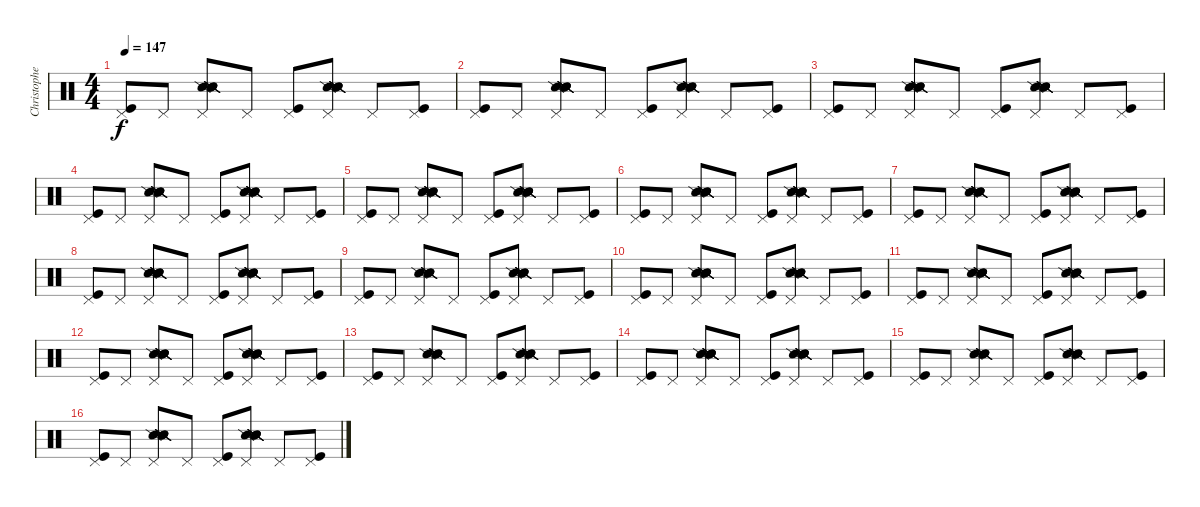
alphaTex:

\track ("Christopher Schneider  (Drums)" "Christophe") {instrument percussion}
\staff {score}
\articulation defaults
\ts (4 4)
\tempo 147
\clef neutral
\ks c
("Pedal Hi-Hat (hit)" "Kick (hit)").8{dy f} "Pedal Hi-Hat (hit)".8 ("Pedal Hi-Hat (hit)" "Snare (side stick) 2" "Snare (side stick) 2" "Snare (side stick) 2" "Snare (side stick) 2" "Snare (side stick) 2").8 "Pedal Hi-Hat (hit)".8 ("Pedal Hi-Hat (hit)" "Kick (hit)").8 ("Pedal Hi-Hat (hit)" "Snare (side stick) 2" "Snare (side stick) 2" "Snare (side stick) 2" "Snare (side stick) 2" "Snare (side stick) 2").8 "Pedal Hi-Hat (hit)".8 ("Pedal Hi-Hat (hit)" "Kick (hit)").8 |
("Pedal Hi-Hat (hit)" "Kick (hit)").8 "Pedal Hi-Hat (hit)".8 ("Pedal Hi-Hat (hit)" "Snare (side stick) 2" "Snare (side stick) 2" "Snare (side stick) 2" "Snare (side stick) 2" "Snare (side stick) 2").8 "Pedal Hi-Hat (hit)".8 ("Pedal Hi-Hat (hit)" "Kick (hit)").8 ("Pedal Hi-Hat (hit)" "Snare (side stick) 2" "Snare (side stick) 2" "Snare (side stick) 2" "Snare (side stick) 2" "Snare (side stick) 2").8 "Pedal Hi-Hat (hit)".8 ("Pedal Hi-Hat (hit)" "Kick (hit)").8 |
("Pedal Hi-Hat (hit)" "Kick (hit)").8 "Pedal Hi-Hat (hit)".8 ("Pedal Hi-Hat (hit)" "Snare (side stick) 2" "Snare (side stick) 2" "Snare (side stick) 2" "Snare (side stick) 2" "Snare (side stick) 2").8 "Pedal Hi-Hat (hit)".8 ("Pedal Hi-Hat (hit)" "Kick (hit)").8 ("Pedal Hi-Hat (hit)" "Snare (side stick) 2" "Snare (side stick) 2" "Snare (side stick) 2" "Snare (side stick) 2" "Snare (side stick) 2").8 "Pedal Hi-Hat (hit)".8 ("Pedal Hi-Hat (hit)" "Kick (hit)").8 |
("Pedal Hi-Hat (hit)" "Kick (hit)").8 "Pedal Hi-Hat (hit)".8 ("Pedal Hi-Hat (hit)" "Snare (side stick) 2" "Snare (side stick) 2" "Snare (side stick) 2" "Snare (side stick) 2" "Snare (side stick) 2").8 "Pedal Hi-Hat (hit)".8 ("Pedal Hi-Hat (hit)" "Kick (hit)").8 ("Pedal Hi-Hat (hit)" "Snare (side stick) 2" "Snare (side stick) 2" "Snare (side stick) 2" "Snare (side stick) 2" "Snare (side stick) 2").8 "Pedal Hi-Hat (hit)".8 ("Pedal Hi-Hat (hit)" "Kick (hit)").8 |
("Pedal Hi-Hat (hit)" "Kick (hit)").8 "Pedal Hi-Hat (hit)".8 ("Pedal Hi-Hat (hit)" "Snare (side stick) 2" "Snare (side stick) 2" "Snare (side stick) 2" "Snare (side stick) 2" "Snare (side stick) 2").8 "Pedal Hi-Hat (hit)".8 ("Pedal Hi-Hat (hit)" "Kick (hit)").8 ("Pedal Hi-Hat (hit)" "Snare (side stick) 2" "Snare (side stick) 2" "Snare (side stick) 2" "Snare (side stick) 2" "Snare (side stick) 2").8 "Pedal Hi-Hat (hit)".8 ("Pedal Hi-Hat (hit)" "Kick (hit)").8 |
("Pedal Hi-Hat (hit)" "Kick (hit)").8 "Pedal Hi-Hat (hit)".8 ("Pedal Hi-Hat (hit)" "Snare (side stick) 2" "Snare (side stick) 2" "Snare (side stick) 2" "Snare (side stick) 2" "Snare (side stick) 2").8 "Pedal Hi-Hat (hit)".8 ("Pedal Hi-Hat (hit)" "Kick (hit)").8 ("Pedal Hi-Hat (hit)" "Snare (side stick) 2" "Snare (side stick) 2" "Snare (side stick) 2" "Snare (side stick) 2" "Snare (side stick) 2").8 "Pedal Hi-Hat (hit)".8 ("Pedal Hi-Hat (hit)" "Kick (hit)").8 |
("Pedal Hi-Hat (hit)" "Kick (hit)").8 "Pedal Hi-Hat (hit)".8 ("Pedal Hi-Hat (hit)" "Snare (side stick) 2" "Snare (side stick) 2" "Snare (side stick) 2" "Snare (side stick) 2" "Snare (side stick) 2").8 "Pedal Hi-Hat (hit)".8 ("Pedal Hi-Hat (hit)" "Kick (hit)").8 ("Pedal Hi-Hat (hit)" "Snare (side stick) 2" "Snare (side stick) 2" "Snare (side stick) 2" "Snare (side stick) 2" "Snare (side stick) 2").8 "Pedal Hi-Hat (hit)".8 ("Pedal Hi-Hat (hit)" "Kick (hit)").8 |
("Pedal Hi-Hat (hit)" "Kick (hit)").8 "Pedal Hi-Hat (hit)".8 ("Pedal Hi-Hat (hit)" "Snare (side stick) 2" "Snare (side stick) 2" "Snare (side stick) 2" "Snare (side stick) 2" "Snare (side stick) 2").8 "Pedal Hi-Hat (hit)".8 ("Pedal Hi-Hat (hit)" "Kick (hit)").8 ("Pedal Hi-Hat (hit)" "Snare (side stick) 2" "Snare (side stick) 2" "Snare (side stick) 2" "Snare (side stick) 2" "Snare (side stick) 2").8 "Pedal Hi-Hat (hit)".8 ("Pedal Hi-Hat (hit)" "Kick (hit)").8 |
("Pedal Hi-Hat (hit)" "Kick (hit)").8 "Pedal Hi-Hat (hit)".8 ("Pedal Hi-Hat (hit)" "Snare (side stick) 2" "Snare (side stick) 2" "Snare (side stick) 2" "Snare (side stick) 2" "Snare (side stick) 2").8 "Pedal Hi-Hat (hit)".8 ("Pedal Hi-Hat (hit)" "Kick (hit)").8 ("Pedal Hi-Hat (hit)" "Snare (side stick) 2" "Snare (side stick) 2" "Snare (side stick) 2" "Snare (side stick) 2" "Snare (side stick) 2").8 "Pedal Hi-Hat (hit)".8 ("Pedal Hi-Hat (hit)" "Kick (hit)").8 |
("Pedal Hi-Hat (hit)" "Kick (hit)").8 "Pedal Hi-Hat (hit)".8 ("Pedal Hi-Hat (hit)" "Snare (side stick) 2" "Snare (side stick) 2" "Snare (side stick) 2" "Snare (side stick) 2" "Snare (side stick) 2").8 "Pedal Hi-Hat (hit)".8 ("Pedal Hi-Hat (hit)" "Kick (hit)").8 ("Pedal Hi-Hat (hit)" "Snare (side stick) 2" "Snare (side stick) 2" "Snare (side stick) 2" "Snare (side stick) 2" "Snare (side stick) 2").8 "Pedal Hi-Hat (hit)".8 ("Pedal Hi-Hat (hit)" "Kick (hit)").8 |
("Pedal Hi-Hat (hit)" "Kick (hit)").8 "Pedal Hi-Hat (hit)".8 ("Pedal Hi-Hat (hit)" "Snare (side stick) 2" "Snare (side stick) 2" "Snare (side stick) 2" "Snare (side stick) 2" "Snare (side stick) 2").8 "Pedal Hi-Hat (hit)".8 ("Pedal Hi-Hat (hit)" "Kick (hit)").8 ("Pedal Hi-Hat (hit)" "Snare (side stick) 2" "Snare (side stick) 2" "Snare (side stick) 2" "Snare (side stick) 2" "Snare (side stick) 2").8 "Pedal Hi-Hat (hit)".8 ("Pedal Hi-Hat (hit)" "Kick (hit)").8 |
("Pedal Hi-Hat (hit)" "Kick (hit)").8 "Pedal Hi-Hat (hit)".8 ("Pedal Hi-Hat (hit)" "Snare (side stick) 2" "Snare (side stick) 2" "Snare (side stick) 2" "Snare (side stick) 2" "Snare (side stick) 2").8 "Pedal Hi-Hat (hit)".8 ("Pedal Hi-Hat (hit)" "Kick (hit)").8 ("Pedal Hi-Hat (hit)" "Snare (side stick) 2" "Snare (side stick) 2" "Snare (side stick) 2" "Snare (side stick) 2" "Snare (side stick) 2").8 "Pedal Hi-Hat (hit)".8 ("Pedal Hi-Hat (hit)" "Kick (hit)").8 |
("Pedal Hi-Hat (hit)" "Kick (hit)").8 "Pedal Hi-Hat (hit)".8 ("Pedal Hi-Hat (hit)" "Snare (side stick) 2" "Snare (side stick) 2" "Snare (side stick) 2" "Snare (side stick) 2" "Snare (side stick) 2").8 "Pedal Hi-Hat (hit)".8 ("Pedal Hi-Hat (hit)" "Kick (hit)").8 ("Pedal Hi-Hat (hit)" "Snare (side stick) 2" "Snare (side stick) 2" "Snare (side stick) 2" "Snare (side stick) 2" "Snare (side stick) 2").8 "Pedal Hi-Hat (hit)".8 ("Pedal Hi-Hat (hit)" "Kick (hit)").8 |
("Pedal Hi-Hat (hit)" "Kick (hit)").8 "Pedal Hi-Hat (hit)".8 ("Pedal Hi-Hat (hit)" "Snare (side stick) 2" "Snare (side stick) 2" "Snare (side stick) 2" "Snare (side stick) 2" "Snare (side stick) 2").8 "Pedal Hi-Hat (hit)".8 ("Pedal Hi-Hat (hit)" "Kick (hit)").8 ("Pedal Hi-Hat (hit)" "Snare (side stick) 2" "Snare (side stick) 2" "Snare (side stick) 2" "Snare (side stick) 2" "Snare (side stick) 2").8 "Pedal Hi-Hat (hit)".8 ("Pedal Hi-Hat (hit)" "Kick (hit)").8 |
("Pedal Hi-Hat (hit)" "Kick (hit)").8 "Pedal Hi-Hat (hit)".8 ("Pedal Hi-Hat (hit)" "Snare (side stick) 2" "Snare (side stick) 2" "Snare (side stick) 2" "Snare (side stick) 2" "Snare (side stick) 2").8 "Pedal Hi-Hat (hit)".8 ("Pedal Hi-Hat (hit)" "Kick (hit)").8 ("Pedal Hi-Hat (hit)" "Snare (side stick) 2" "Snare (side stick) 2" "Snare (side stick) 2" "Snare (side stick) 2" "Snare (side stick) 2").8 "Pedal Hi-Hat (hit)".8 ("Pedal Hi-Hat (hit)" "Kick (hit)").8 |
("Pedal Hi-Hat (hit)" "Kick (hit)").8 "Pedal Hi-Hat (hit)".8 ("Pedal Hi-Hat (hit)" "Snare (side stick) 2" "Snare (side stick) 2" "Snare (side stick) 2" "Snare (side stick) 2" "Snare (side stick) 2").8 "Pedal Hi-Hat (hit)".8 ("Pedal Hi-Hat (hit)" "Kick (hit)").8 ("Pedal Hi-Hat (hit)" "Snare (side stick) 2" "Snare (side stick) 2" "Snare (side stick) 2" "Snare (side stick) 2" "Snare (side stick) 2").8 "Pedal Hi-Hat (hit)".8 ("Pedal Hi-Hat (hit)" "Kick (hit)").8
